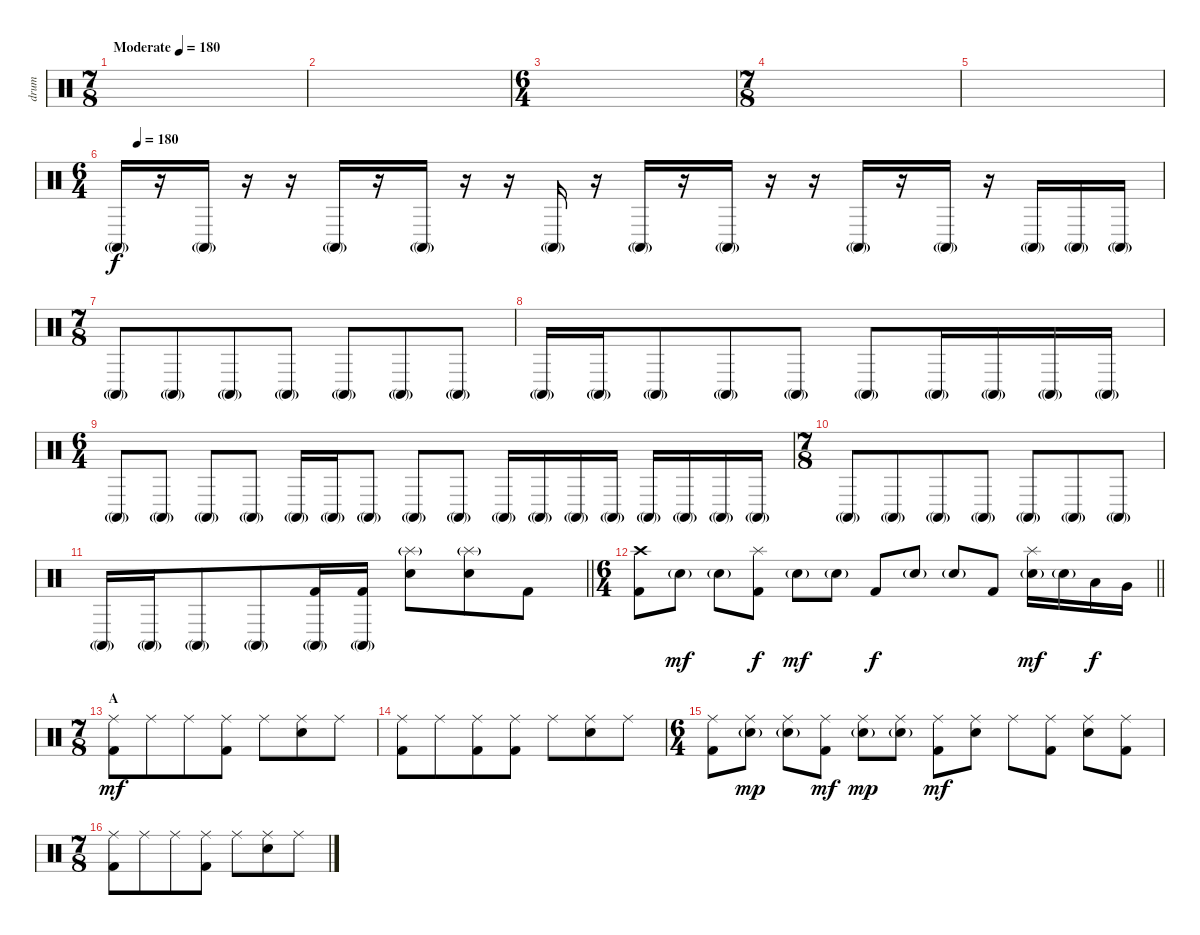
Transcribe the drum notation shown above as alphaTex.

\track ("drum" "drum") {instrument percussion}
\staff {score}
\articulation defaults
\ts (7 8)
\tempo (180 "Moderate")
\tempo 160
\tempo (180 "Moderate")
\clef neutral
\ks c
|
|
\ts (6 4)
|
\ts (7 8)
|
|
\ts (6 4)
\tempo (180 0.020833333333333332)
"Conga high (mute)"{g}.16 r.16 "Conga high (mute)"{g}.16 r.16 r.16 "Conga high (mute)"{g}.16 r.16 "Conga high (mute)"{g}.16 r.16 r.16 "Conga high (mute)"{g}.16 r.16 "Conga high (mute)"{g}.16 r.16 "Conga high (mute)"{g}.16 r.16 r.16 "Conga high (mute)"{g}.16 r.16 "Conga high (mute)"{g}.16 r.16 "Conga high (mute)"{g}.16 "Conga high (mute)"{g}.16 "Conga high (mute)"{g}.16 |
\ts (7 8)
"Conga high (mute)"{g}.8 "Conga high (mute)"{g}.8 "Conga high (mute)"{g}.8 "Conga high (mute)"{g}.8 "Conga high (mute)"{g}.8 "Conga high (mute)"{g}.8 "Conga high (mute)"{g}.8 |
"Conga high (mute)"{g}.16 "Conga high (mute)"{g}.16 "Conga high (mute)"{g}.8 "Conga high (mute)"{g}.8 "Conga high (mute)"{g}.8 "Conga high (mute)"{g}.8 "Conga high (mute)"{g}.16 "Conga high (mute)"{g}.16 "Conga high (mute)"{g}.16 "Conga high (mute)"{g}.16 |
\ts (6 4)
"Conga high (mute)"{g}.8 "Conga high (mute)"{g}.8 "Conga high (mute)"{g}.8 "Conga high (mute)"{g}.8 "Conga high (mute)"{g}.16 "Conga high (mute)"{g}.16 "Conga high (mute)"{g}.8 "Conga high (mute)"{g}.8 "Conga high (mute)"{g}.8 "Conga high (mute)"{g}.16 "Conga high (mute)"{g}.16 "Conga high (mute)"{g}.16 "Conga high (mute)"{g}.16 "Conga high (mute)"{g}.16 "Conga high (mute)"{g}.16 "Conga high (mute)"{g}.16 "Conga high (mute)"{g}.16 |
\ts (7 8)
"Conga high (mute)"{g}.8 "Conga high (mute)"{g}.8 "Conga high (mute)"{g}.8 "Conga high (mute)"{g}.8 "Conga high (mute)"{g}.8 "Conga high (mute)"{g}.8 "Conga high (mute)"{g}.8 |
\barLineRight lightlight "Conga high (mute)"{g}.16 "Conga high (mute)"{g}.16 "Conga high (mute)"{g}.8 "Conga high (mute)"{g}.8
("Conga high (mute)"{g} "Kick (hit) 2").16 ("Conga high (mute)"{g} "Kick (hit) 2").16 ("Splash (hit)"{g} "Electric Snare (hit)").8 ("Splash (hit)"{g} "Electric Snare (hit)").8 "Kick (hit) 2".8{dy f} |
\ts (6 4)
\section ("" "")
\barLineRight lightlight
("Crash high (hit)" "Kick (hit) 2").8 "Electric Snare (hit)"{g}.8{dy mf} "Electric Snare (hit)"{g}.8 ("Splash (hit)" "Kick (hit) 2").8{dy f} "Electric Snare (hit)"{g}.8{dy mf} "Electric Snare (hit)"{g}.8 "Kick (hit) 2".8{dy f} "Electric Snare (hit)"{g}.8 "Electric Snare (hit)"{g}.8 "Kick (hit) 2".8 ("Splash (hit)" "Electric Snare (hit)"{g}).16{dy mf} "Electric Snare (hit)"{g}.16 "Low Tom (hit)".16{dy f} "Very Low Tom (hit)".16 |
\ts (7 8)
\section ("" "A")
("Ride (middle)" "Kick (hit) 2").8{dy mf} "Ride (middle)".8 "Ride (middle)".8 ("Ride (middle)" "Kick (hit) 2").8 "Ride (middle)".8 ("Ride (middle)" "Electric Snare (hit)").8 "Ride (middle)".8 |
("Ride (middle)" "Kick (hit) 2").8 "Ride (middle)".8 ("Ride (middle)" "Kick (hit) 2").8 ("Ride (middle)" "Kick (hit) 2").8 "Ride (middle)".8 ("Ride (middle)" "Electric Snare (hit)").8 "Ride (middle)".8 |
\ts (6 4)
("Ride (middle)" "Kick (hit) 2").8 ("Ride (middle)" "Electric Snare (hit)"{g}).8{dy mp} ("Ride (middle)" "Electric Snare (hit)"{g}).8 ("Ride (middle)" "Kick (hit) 2").8{dy mf} ("Ride (middle)" "Electric Snare (hit)"{g}).8{dy mp} ("Ride (middle)" "Electric Snare (hit)"{g}).8 ("Ride (middle)" "Kick (hit) 2").8{dy mf} ("Ride (middle)" "Electric Snare (hit)").8 "Ride (middle)".8 ("Ride (middle)" "Kick (hit) 2").8 ("Ride (middle)" "Electric Snare (hit)").8 ("Ride (middle)" "Kick (hit) 2").8 |
\ts (7 8)
("Ride (middle)" "Kick (hit) 2").8 "Ride (middle)".8 "Ride (middle)".8 ("Ride (middle)" "Kick (hit) 2").8 "Ride (middle)".8 ("Ride (middle)" "Electric Snare (hit)").8 "Ride (middle)".8
